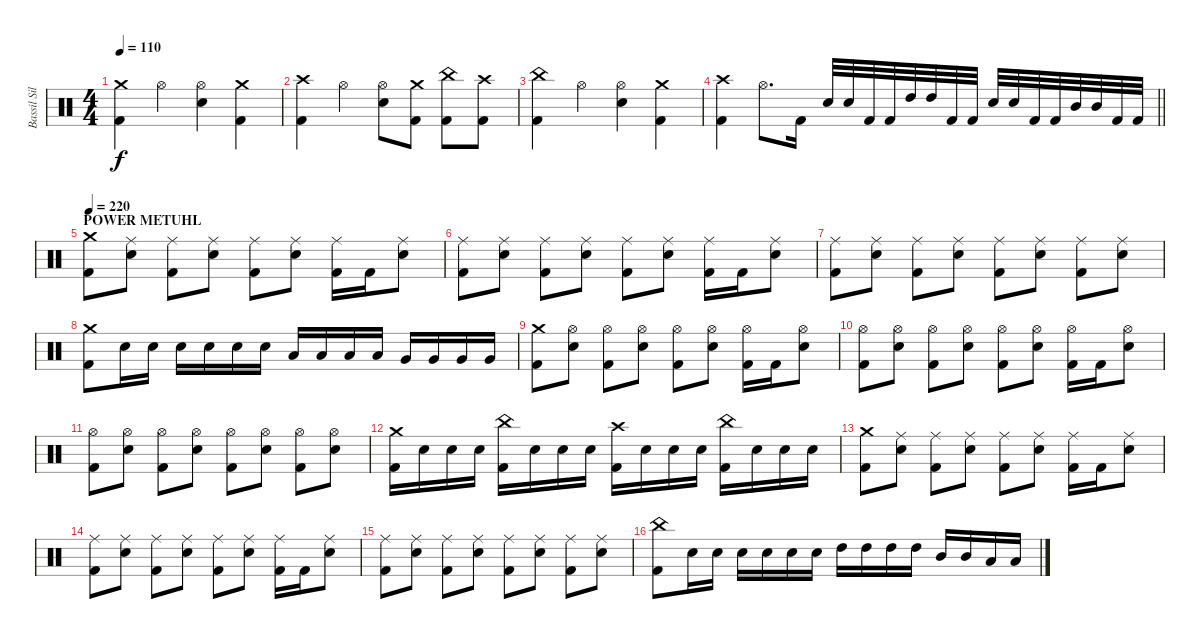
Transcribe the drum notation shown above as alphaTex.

\track ("Bassil Silver-Hajo" "Bassil Sil") {instrument percussion}
\staff {score}
\articulation defaults
\ts (4 4)
\tempo 110
\clef neutral
\ks c
("Crash medium (hit)" "Kick (hit) 2").4{dy f} "Hi-Hat (open)".4 ("Hi-Hat (open)" "Snare (hit) 2").4 ("Crash medium (hit)" "Kick (hit) 2").4 |
("Crash high (hit)" "Kick (hit) 2").4 "Hi-Hat (open)".4 ("Hi-Hat (open)" "Snare (hit) 2").8 ("Crash medium (hit)" "Kick (hit) 2").8 ("China (hit)" "Kick (hit) 2").8 ("Crash high (hit)" "Kick (hit) 2").8 |
("China (hit)" "Kick (hit) 2").4 "Hi-Hat (open)".4 ("Hi-Hat (open)" "Snare (hit) 2").4 ("Crash medium (hit)" "Kick (hit) 2").4 |
\barLineRight lightlight
("Crash high (hit)" "Kick (hit) 2").4 "Hi-Hat (open)".8{d} "Kick (hit) 2".16 "Snare (hit) 2".32 "Snare (hit) 2".32 "Kick (hit) 2".32 "Kick (hit) 2".32 "High Tom (hit)".32 "High Tom (hit)".32 "Kick (hit) 2".32 "Kick (hit) 2".32 "Snare (hit) 2".32 "Snare (hit) 2".32 "Kick (hit) 2".32 "Kick (hit) 2".32 "Mid Tom (hit)".32 "Mid Tom (hit)".32 "Kick (hit) 2".32 "Kick (hit) 2".32 |
\section ("" "POWER METUHL")
\tempo 220
("Crash medium (hit)" "Kick (hit) 2").8 ("Ride (middle)" "Snare (hit) 2").8 ("Ride (middle)" "Kick (hit) 2").8 ("Ride (middle)" "Snare (hit) 2").8 ("Ride (middle)" "Kick (hit) 2").8 ("Ride (middle)" "Snare (hit) 2").8 ("Ride (middle)" "Kick (hit) 2").16 "Kick (hit) 2".16 ("Ride (middle)" "Snare (hit) 2").8 |
("Ride (middle)" "Kick (hit) 2").8 ("Ride (middle)" "Snare (hit) 2").8 ("Ride (middle)" "Kick (hit) 2").8 ("Ride (middle)" "Snare (hit) 2").8 ("Ride (middle)" "Kick (hit) 2").8 ("Ride (middle)" "Snare (hit) 2").8 ("Ride (middle)" "Kick (hit) 2").16 "Kick (hit) 2".16 ("Ride (middle)" "Snare (hit) 2").8 |
("Ride (middle)" "Kick (hit) 2").8 ("Ride (middle)" "Snare (hit) 2").8 ("Ride (middle)" "Kick (hit) 2").8 ("Ride (middle)" "Snare (hit) 2").8 ("Ride (middle)" "Kick (hit) 2").8 ("Ride (middle)" "Snare (hit) 2").8 ("Ride (middle)" "Kick (hit) 2").8 ("Ride (middle)" "Snare (hit) 2").8 |
("Crash medium (hit)" "Kick (hit) 2").8 "Snare (hit) 2".16 "Snare (hit) 2".16 "Snare (hit) 2".16 "Snare (hit) 2".16 "Snare (hit) 2".16 "Snare (hit) 2".16 "Low Tom (hit)".16 "Low Tom (hit)".16 "Low Tom (hit)".16 "Low Tom (hit)".16 "Very Low Tom (hit)".16 "Very Low Tom (hit)".16 "Very Low Tom (hit)".16 "Very Low Tom (hit)".16 |
("Crash medium (hit)" "Kick (hit) 2").8 ("Hi-Hat (open)" "Snare (hit) 2").8 ("Hi-Hat (open)" "Kick (hit) 2").8 ("Hi-Hat (open)" "Snare (hit) 2").8 ("Hi-Hat (open)" "Kick (hit) 2").8 ("Hi-Hat (open)" "Snare (hit) 2").8 ("Hi-Hat (open)" "Kick (hit) 2").16 "Kick (hit) 2".16 ("Hi-Hat (open)" "Snare (hit) 2").8 |
("Hi-Hat (open)" "Kick (hit) 2").8 ("Hi-Hat (open)" "Snare (hit) 2").8 ("Hi-Hat (open)" "Kick (hit) 2").8 ("Hi-Hat (open)" "Snare (hit) 2").8 ("Hi-Hat (open)" "Kick (hit) 2").8 ("Hi-Hat (open)" "Snare (hit) 2").8 ("Hi-Hat (open)" "Kick (hit) 2").16 "Kick (hit) 2".16 ("Hi-Hat (open)" "Snare (hit) 2").8 |
("Hi-Hat (open)" "Kick (hit) 2").8 ("Hi-Hat (open)" "Snare (hit) 2").8 ("Hi-Hat (open)" "Kick (hit) 2").8 ("Hi-Hat (open)" "Snare (hit) 2").8 ("Hi-Hat (open)" "Kick (hit) 2").8 ("Hi-Hat (open)" "Snare (hit) 2").8 ("Hi-Hat (open)" "Kick (hit) 2").8 ("Hi-Hat (open)" "Snare (hit) 2").8 |
("Crash medium (hit)" "Kick (hit) 2").16 "Snare (hit) 2".16 "Snare (hit) 2".16 "Snare (hit) 2".16 ("China (hit)" "Kick (hit) 2").16 "Snare (hit) 2".16 "Snare (hit) 2".16 "Snare (hit) 2".16 ("Crash high (hit)" "Kick (hit) 2").16 "Snare (hit) 2".16 "Snare (hit) 2".16 "Snare (hit) 2".16 ("China (hit)" "Kick (hit) 2").16 "Snare (hit) 2".16 "Snare (hit) 2".16 "Snare (hit) 2".16 |
("Crash medium (hit)" "Kick (hit) 2").8 ("Ride (middle)" "Snare (hit) 2").8 ("Ride (middle)" "Kick (hit) 2").8 ("Ride (middle)" "Snare (hit) 2").8 ("Ride (middle)" "Kick (hit) 2").8 ("Ride (middle)" "Snare (hit) 2").8 ("Ride (middle)" "Kick (hit) 2").16 "Kick (hit) 2".16 ("Ride (middle)" "Snare (hit) 2").8 |
("Ride (middle)" "Kick (hit) 2").8 ("Ride (middle)" "Snare (hit) 2").8 ("Ride (middle)" "Kick (hit) 2").8 ("Ride (middle)" "Snare (hit) 2").8 ("Ride (middle)" "Kick (hit) 2").8 ("Ride (middle)" "Snare (hit) 2").8 ("Ride (middle)" "Kick (hit) 2").16 "Kick (hit) 2".16 ("Ride (middle)" "Snare (hit) 2").8 |
("Ride (middle)" "Kick (hit) 2").8 ("Ride (middle)" "Snare (hit) 2").8 ("Ride (middle)" "Kick (hit) 2").8 ("Ride (middle)" "Snare (hit) 2").8 ("Ride (middle)" "Kick (hit) 2").8 ("Ride (middle)" "Snare (hit) 2").8 ("Ride (middle)" "Kick (hit) 2").8 ("Ride (middle)" "Snare (hit) 2").8 |
("China (hit)" "Kick (hit) 2").8 "Snare (hit) 2".16 "Snare (hit) 2".16 "Snare (hit) 2".16 "Snare (hit) 2".16 "Snare (hit) 2".16 "Snare (hit) 2".16 "High Tom (hit)".16 "High Tom (hit)".16 "High Tom (hit)".16 "High Tom (hit)".16 "Mid Tom (hit)".16 "Mid Tom (hit)".16 "Low Tom (hit)".16 "Low Tom (hit)".16
